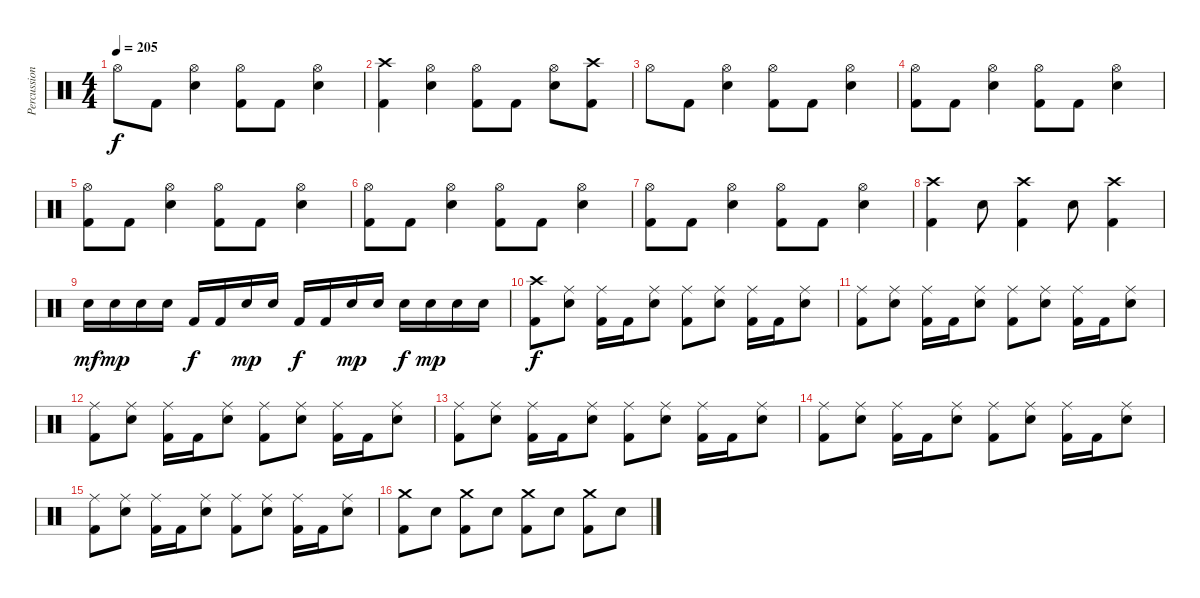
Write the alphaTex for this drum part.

\track ("Percussions" "Percussion") {instrument percussion}
\staff {score}
\articulation defaults
\ts (4 4)
\tempo 205
\clef neutral
\ks c "Hi-Hat (open)".8{dy f} "Kick (hit) 2".8
("Hi-Hat (open)" "Snare (hit) 2").4 ("Hi-Hat (open)" "Kick (hit) 2").8 "Kick (hit) 2".8 ("Hi-Hat (open)" "Snare (hit) 2").4 |
("Crash high (hit)" "Kick (hit) 2").4 ("Hi-Hat (open)" "Snare (hit) 2").4 ("Hi-Hat (open)" "Kick (hit) 2").8 "Kick (hit) 2".8 ("Hi-Hat (open)" "Snare (hit) 2").8 ("Crash high (hit)" "Kick (hit) 2").8 |
"Hi-Hat (open)".8 "Kick (hit) 2".8 ("Hi-Hat (open)" "Snare (hit) 2").4 ("Hi-Hat (open)" "Kick (hit) 2").8 "Kick (hit) 2".8 ("Hi-Hat (open)" "Snare (hit) 2").4 |
("Hi-Hat (open)" "Kick (hit) 2").8 "Kick (hit) 2".8 ("Hi-Hat (open)" "Snare (hit) 2").4 ("Hi-Hat (open)" "Kick (hit) 2").8 "Kick (hit) 2".8 ("Hi-Hat (open)" "Snare (hit) 2").4 |
("Hi-Hat (open)" "Kick (hit) 2").8 "Kick (hit) 2".8 ("Hi-Hat (open)" "Snare (hit) 2").4 ("Hi-Hat (open)" "Kick (hit) 2").8 "Kick (hit) 2".8 ("Hi-Hat (open)" "Snare (hit) 2").4 |
("Hi-Hat (open)" "Kick (hit) 2").8 "Kick (hit) 2".8 ("Hi-Hat (open)" "Snare (hit) 2").4 ("Hi-Hat (open)" "Kick (hit) 2").8 "Kick (hit) 2".8 ("Hi-Hat (open)" "Snare (hit) 2").4 |
("Hi-Hat (open)" "Kick (hit) 2").8 "Kick (hit) 2".8 ("Hi-Hat (open)" "Snare (hit) 2").4 ("Hi-Hat (open)" "Kick (hit) 2").8 "Kick (hit) 2".8 ("Hi-Hat (open)" "Snare (hit) 2").4 |
("Crash high (hit)" "Kick (hit) 2").4 "Snare (hit) 2".8 ("Crash high (hit)" "Kick (hit) 2").4 "Snare (hit) 2".8 ("Crash high (hit)" "Kick (hit) 2").4 |
"Snare (hit) 2".16{dy mf} "Snare (hit) 2".16{dy mp} "Snare (hit) 2".16 "Snare (hit) 2".16 "Kick (hit) 2".16{dy f} "Kick (hit) 2".16 "Snare (hit) 2".16{dy mp} "Snare (hit) 2".16 "Kick (hit) 2".16{dy f} "Kick (hit) 2".16 "Snare (hit) 2".16{dy mp} "Snare (hit) 2".16 "Snare (hit) 2".16{dy f} "Snare (hit) 2".16{dy mp} "Snare (hit) 2".16 "Snare (hit) 2".16 |
("Crash high (hit)" "Kick (hit) 2").8{dy f} ("Ride (middle)" "Snare (hit) 2").8 ("Ride (middle)" "Kick (hit) 2").16 "Kick (hit) 2".16 ("Ride (middle)" "Snare (hit) 2").8 ("Ride (middle)" "Kick (hit) 2").8 ("Ride (middle)" "Snare (hit) 2").8 ("Ride (middle)" "Kick (hit) 2").16 "Kick (hit) 2".16 ("Ride (middle)" "Snare (hit) 2").8 |
("Ride (middle)" "Kick (hit) 2").8 ("Ride (middle)" "Snare (hit) 2").8 ("Ride (middle)" "Kick (hit) 2").16 "Kick (hit) 2".16 ("Ride (middle)" "Snare (hit) 2").8 ("Ride (middle)" "Kick (hit) 2").8 ("Ride (middle)" "Snare (hit) 2").8 ("Ride (middle)" "Kick (hit) 2").16 "Kick (hit) 2".16 ("Ride (middle)" "Snare (hit) 2").8 |
("Ride (middle)" "Kick (hit) 2").8 ("Ride (middle)" "Snare (hit) 2").8 ("Ride (middle)" "Kick (hit) 2").16 "Kick (hit) 2".16 ("Ride (middle)" "Snare (hit) 2").8 ("Ride (middle)" "Kick (hit) 2").8 ("Ride (middle)" "Snare (hit) 2").8 ("Ride (middle)" "Kick (hit) 2").16 "Kick (hit) 2".16 ("Ride (middle)" "Snare (hit) 2").8 |
("Ride (middle)" "Kick (hit) 2").8 ("Ride (middle)" "Snare (hit) 2").8 ("Ride (middle)" "Kick (hit) 2").16 "Kick (hit) 2".16 ("Ride (middle)" "Snare (hit) 2").8 ("Ride (middle)" "Kick (hit) 2").8 ("Ride (middle)" "Snare (hit) 2").8 ("Ride (middle)" "Kick (hit) 2").16 "Kick (hit) 2".16 ("Ride (middle)" "Snare (hit) 2").8 |
("Ride (middle)" "Kick (hit) 2").8 ("Ride (middle)" "Snare (hit) 2").8 ("Ride (middle)" "Kick (hit) 2").16 "Kick (hit) 2".16 ("Ride (middle)" "Snare (hit) 2").8 ("Ride (middle)" "Kick (hit) 2").8 ("Ride (middle)" "Snare (hit) 2").8 ("Ride (middle)" "Kick (hit) 2").16 "Kick (hit) 2".16 ("Ride (middle)" "Snare (hit) 2").8 |
("Ride (middle)" "Kick (hit) 2").8 ("Ride (middle)" "Snare (hit) 2").8 ("Ride (middle)" "Kick (hit) 2").16 "Kick (hit) 2".16 ("Ride (middle)" "Snare (hit) 2").8 ("Ride (middle)" "Kick (hit) 2").8 ("Ride (middle)" "Snare (hit) 2").8 ("Ride (middle)" "Kick (hit) 2").16 "Kick (hit) 2".16 ("Ride (middle)" "Snare (hit) 2").8 |
("Crash medium (hit)" "Kick (hit) 2").8 "Snare (hit) 2".8 ("Crash medium (hit)" "Kick (hit) 2").8 "Snare (hit) 2".8 ("Crash medium (hit)" "Kick (hit) 2").8 "Snare (hit) 2".8 ("Crash medium (hit)" "Kick (hit) 2").8 "Snare (hit) 2".8
